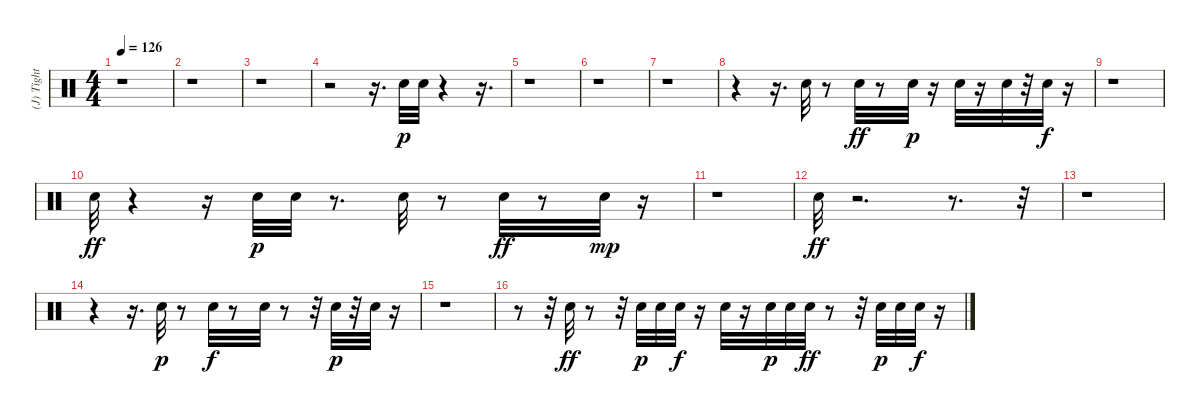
\track ("(J) Tight Snare" "(J) Tight ") {instrument percussion}
\staff {score}
\articulation defaults
\ts (4 4)
\tempo 126
\clef neutral
\ks c
r.1{dy p} |
r.1 |
r.1 |
r.2 r.16{d} "Electric Snare (hit)".32 "Electric Snare (hit)".32 r.4 r.16{d} |
r.1 |
r.1 |
r.1 |
r.4 r.16{d} "Electric Snare (hit)".32 r.8 "Electric Snare (hit)".32{dy ff} r.8 "Electric Snare (hit)".32{dy p} r.16 "Electric Snare (hit)".32 r.16 "Electric Snare (hit)".32 r.32 "Electric Snare (hit)".32{dy f} r.16 |
r.1 |
"Electric Snare (hit)".32{dy ff} r.4 r.16 "Electric Snare (hit)".32{dy p} "Electric Snare (hit)".32 r.8{d} "Electric Snare (hit)".32 r.8 "Electric Snare (hit)".32{dy ff} r.8 "Electric Snare (hit)".32{dy mp} r.16 |
r.1 |
"Electric Snare (hit)".32{dy ff} r.2{d} r.8{d} r.32 |
r.1 |
r.4 r.16{d} "Electric Snare (hit)".32{dy p} r.8 "Electric Snare (hit)".32{dy f} r.8 "Electric Snare (hit)".32 r.8 r.32 "Electric Snare (hit)".32{dy p} r.32 "Electric Snare (hit)".32 r.16 |
r.1 |
r.8 r.32 "Electric Snare (hit)".32{dy ff} r.8 r.32 "Electric Snare (hit)".32{dy p} "Electric Snare (hit)".32 "Electric Snare (hit)".32{dy f} r.16 "Electric Snare (hit)".32 r.16 "Electric Snare (hit)".32{dy p} "Electric Snare (hit)".32 "Electric Snare (hit)".32{dy ff} r.8 r.32 "Electric Snare (hit)".32{dy p} "Electric Snare (hit)".32 "Electric Snare (hit)".32{dy f} r.16
